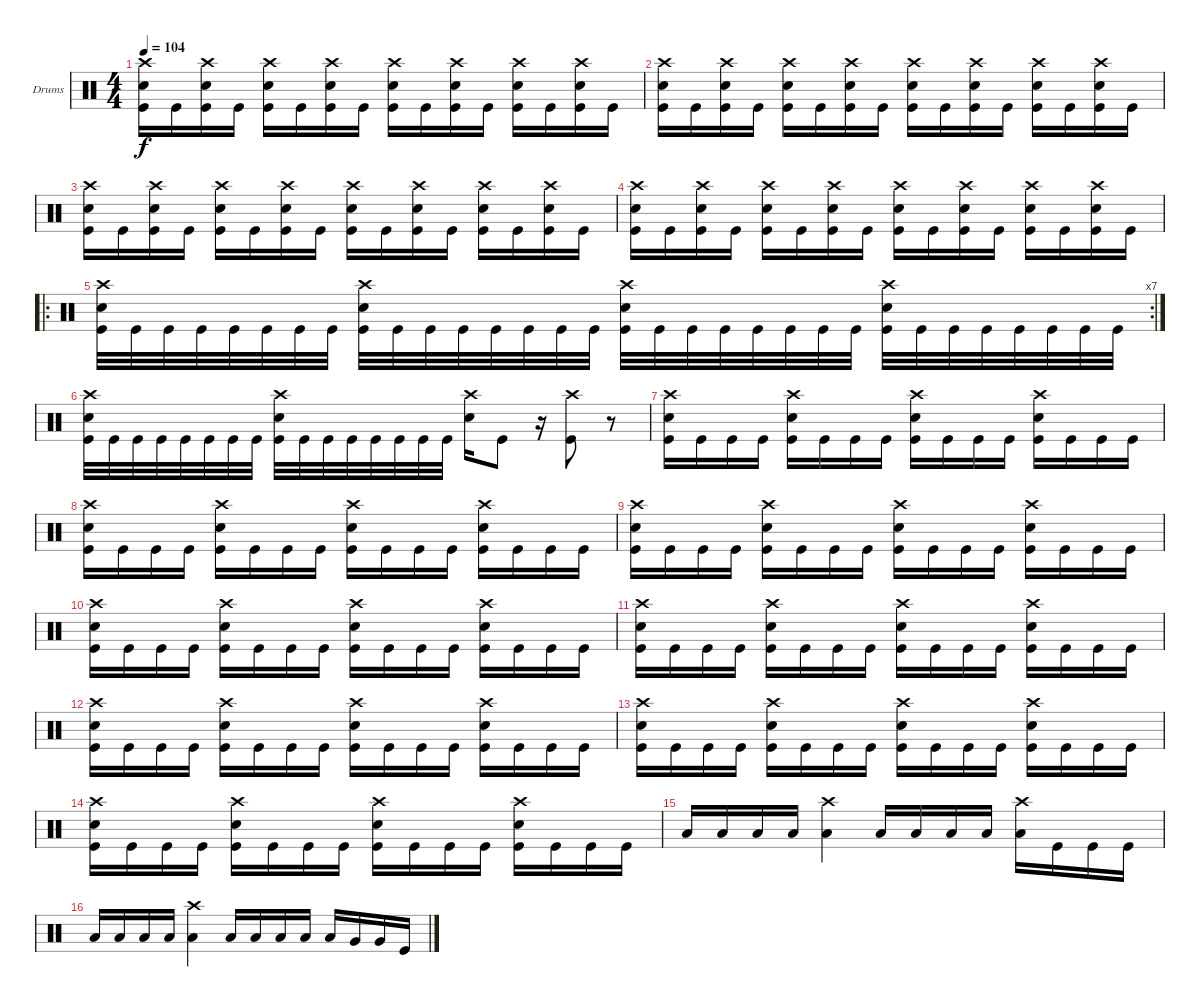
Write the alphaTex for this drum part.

\bracketExtendMode groupsimilarinstruments
\firstSystemTrackNameOrientation horizontal
\otherSystemsTrackNameOrientation horizontal
\track ("Drumkit" "Drums") {instrument percussion}
\staff {score}
\articulation defaults
\ts (4 4)
\tempo 104
\clef neutral
\ks c
("Crash high (hit)" "Snare (hit) 2" "Kick (hit)").16{dy f} "Kick (hit)".16 ("Crash high (hit)" "Snare (hit) 2" "Kick (hit)").16 "Kick (hit)".16 ("Crash high (hit)" "Snare (hit) 2" "Kick (hit)").16 "Kick (hit)".16 ("Crash high (hit)" "Snare (hit) 2" "Kick (hit)").16 "Kick (hit)".16 ("Crash high (hit)" "Snare (hit) 2" "Kick (hit)").16 "Kick (hit)".16 ("Crash high (hit)" "Snare (hit) 2" "Kick (hit)").16 "Kick (hit)".16 ("Crash high (hit)" "Snare (hit) 2" "Kick (hit)").16 "Kick (hit)".16 ("Crash high (hit)" "Snare (hit) 2" "Kick (hit)").16 "Kick (hit)".16 |
("Crash high (hit)" "Snare (hit) 2" "Kick (hit)").16 "Kick (hit)".16 ("Crash high (hit)" "Snare (hit) 2" "Kick (hit)").16 "Kick (hit)".16 ("Crash high (hit)" "Snare (hit) 2" "Kick (hit)").16 "Kick (hit)".16 ("Crash high (hit)" "Snare (hit) 2" "Kick (hit)").16 "Kick (hit)".16 ("Crash high (hit)" "Snare (hit) 2" "Kick (hit)").16 "Kick (hit)".16 ("Crash high (hit)" "Snare (hit) 2" "Kick (hit)").16 "Kick (hit)".16 ("Crash high (hit)" "Snare (hit) 2" "Kick (hit)").16 "Kick (hit)".16 ("Crash high (hit)" "Snare (hit) 2" "Kick (hit)").16 "Kick (hit)".16 |
("Crash high (hit)" "Snare (hit) 2" "Kick (hit)").16 "Kick (hit)".16 ("Crash high (hit)" "Snare (hit) 2" "Kick (hit)").16 "Kick (hit)".16 ("Crash high (hit)" "Snare (hit) 2" "Kick (hit)").16 "Kick (hit)".16 ("Crash high (hit)" "Snare (hit) 2" "Kick (hit)").16 "Kick (hit)".16 ("Crash high (hit)" "Snare (hit) 2" "Kick (hit)").16 "Kick (hit)".16 ("Crash high (hit)" "Snare (hit) 2" "Kick (hit)").16 "Kick (hit)".16 ("Crash high (hit)" "Snare (hit) 2" "Kick (hit)").16 "Kick (hit)".16 ("Crash high (hit)" "Snare (hit) 2" "Kick (hit)").16 "Kick (hit)".16 |
("Crash high (hit)" "Snare (hit) 2" "Kick (hit)").16 "Kick (hit)".16 ("Crash high (hit)" "Snare (hit) 2" "Kick (hit)").16 "Kick (hit)".16 ("Crash high (hit)" "Snare (hit) 2" "Kick (hit)").16 "Kick (hit)".16 ("Crash high (hit)" "Snare (hit) 2" "Kick (hit)").16 "Kick (hit)".16 ("Crash high (hit)" "Snare (hit) 2" "Kick (hit)").16 "Kick (hit)".16 ("Crash high (hit)" "Snare (hit) 2" "Kick (hit)").16 "Kick (hit)".16 ("Crash high (hit)" "Snare (hit) 2" "Kick (hit)").16 "Kick (hit)".16 ("Crash high (hit)" "Snare (hit) 2" "Kick (hit)").16 "Kick (hit)".16 |
\ro
\rc 7
("Crash high (hit)" "Snare (hit) 2" "Kick (hit)").32 "Kick (hit)".32 "Kick (hit)".32 "Kick (hit)".32 "Kick (hit)".32 "Kick (hit)".32 "Kick (hit)".32 "Kick (hit)".32 ("Crash high (hit)" "Snare (hit) 2" "Kick (hit)").32 "Kick (hit)".32 "Kick (hit)".32 "Kick (hit)".32 "Kick (hit)".32 "Kick (hit)".32 "Kick (hit)".32 "Kick (hit)".32 ("Crash high (hit)" "Snare (hit) 2" "Kick (hit)").32 "Kick (hit)".32 "Kick (hit)".32 "Kick (hit)".32 "Kick (hit)".32 "Kick (hit)".32 "Kick (hit)".32 "Kick (hit)".32 ("Crash high (hit)" "Snare (hit) 2" "Kick (hit)").32 "Kick (hit)".32 "Kick (hit)".32 "Kick (hit)".32 "Kick (hit)".32 "Kick (hit)".32 "Kick (hit)".32 "Kick (hit)".32 |
("Crash high (hit)" "Snare (hit) 2" "Kick (hit)").32 "Kick (hit)".32 "Kick (hit)".32 "Kick (hit)".32 "Kick (hit)".32 "Kick (hit)".32 "Kick (hit)".32 "Kick (hit)".32 ("Crash high (hit)" "Snare (hit) 2" "Kick (hit)").32 "Kick (hit)".32 "Kick (hit)".32 "Kick (hit)".32 "Kick (hit)".32 "Kick (hit)".32 "Kick (hit)".32 "Kick (hit)".32 ("Crash high (hit)" "Snare (hit) 2").16 "Kick (hit)".8 r.16 ("Crash high (hit)" "Kick (hit)").8 r.8 |
("Crash high (hit)" "Snare (hit) 2" "Kick (hit)").16 "Kick (hit)".16 "Kick (hit)".16 "Kick (hit)".16 ("Crash high (hit)" "Snare (hit) 2" "Kick (hit)").16 "Kick (hit)".16 "Kick (hit)".16 "Kick (hit)".16 ("Crash high (hit)" "Snare (hit) 2" "Kick (hit)").16 "Kick (hit)".16 "Kick (hit)".16 "Kick (hit)".16 ("Crash high (hit)" "Snare (hit) 2" "Kick (hit)").16 "Kick (hit)".16 "Kick (hit)".16 "Kick (hit)".16 |
("Crash high (hit)" "Snare (hit) 2" "Kick (hit)").16 "Kick (hit)".16 "Kick (hit)".16 "Kick (hit)".16 ("Crash high (hit)" "Snare (hit) 2" "Kick (hit)").16 "Kick (hit)".16 "Kick (hit)".16 "Kick (hit)".16 ("Crash high (hit)" "Snare (hit) 2" "Kick (hit)").16 "Kick (hit)".16 "Kick (hit)".16 "Kick (hit)".16 ("Crash high (hit)" "Snare (hit) 2" "Kick (hit)").16 "Kick (hit)".16 "Kick (hit)".16 "Kick (hit)".16 |
("Crash high (hit)" "Snare (hit) 2" "Kick (hit)").16 "Kick (hit)".16 "Kick (hit)".16 "Kick (hit)".16 ("Crash high (hit)" "Snare (hit) 2" "Kick (hit)").16 "Kick (hit)".16 "Kick (hit)".16 "Kick (hit)".16 ("Crash high (hit)" "Snare (hit) 2" "Kick (hit)").16 "Kick (hit)".16 "Kick (hit)".16 "Kick (hit)".16 ("Crash high (hit)" "Snare (hit) 2" "Kick (hit)").16 "Kick (hit)".16 "Kick (hit)".16 "Kick (hit)".16 |
("Crash high (hit)" "Snare (hit) 2" "Kick (hit)").16 "Kick (hit)".16 "Kick (hit)".16 "Kick (hit)".16 ("Crash high (hit)" "Snare (hit) 2" "Kick (hit)").16 "Kick (hit)".16 "Kick (hit)".16 "Kick (hit)".16 ("Crash high (hit)" "Snare (hit) 2" "Kick (hit)").16 "Kick (hit)".16 "Kick (hit)".16 "Kick (hit)".16 ("Crash high (hit)" "Snare (hit) 2" "Kick (hit)").16 "Kick (hit)".16 "Kick (hit)".16 "Kick (hit)".16 |
("Crash high (hit)" "Snare (hit) 2" "Kick (hit)").16 "Kick (hit)".16 "Kick (hit)".16 "Kick (hit)".16 ("Crash high (hit)" "Snare (hit) 2" "Kick (hit)").16 "Kick (hit)".16 "Kick (hit)".16 "Kick (hit)".16 ("Crash high (hit)" "Snare (hit) 2" "Kick (hit)").16 "Kick (hit)".16 "Kick (hit)".16 "Kick (hit)".16 ("Crash high (hit)" "Snare (hit) 2" "Kick (hit)").16 "Kick (hit)".16 "Kick (hit)".16 "Kick (hit)".16 |
("Crash high (hit)" "Snare (hit) 2" "Kick (hit)").16 "Kick (hit)".16 "Kick (hit)".16 "Kick (hit)".16 ("Crash high (hit)" "Snare (hit) 2" "Kick (hit)").16 "Kick (hit)".16 "Kick (hit)".16 "Kick (hit)".16 ("Crash high (hit)" "Snare (hit) 2" "Kick (hit)").16 "Kick (hit)".16 "Kick (hit)".16 "Kick (hit)".16 ("Crash high (hit)" "Snare (hit) 2" "Kick (hit)").16 "Kick (hit)".16 "Kick (hit)".16 "Kick (hit)".16 |
("Crash high (hit)" "Snare (hit) 2" "Kick (hit)").16 "Kick (hit)".16 "Kick (hit)".16 "Kick (hit)".16 ("Crash high (hit)" "Snare (hit) 2" "Kick (hit)").16 "Kick (hit)".16 "Kick (hit)".16 "Kick (hit)".16 ("Crash high (hit)" "Snare (hit) 2" "Kick (hit)").16 "Kick (hit)".16 "Kick (hit)".16 "Kick (hit)".16 ("Crash high (hit)" "Snare (hit) 2" "Kick (hit)").16 "Kick (hit)".16 "Kick (hit)".16 "Kick (hit)".16 |
("Crash high (hit)" "Snare (hit) 2" "Kick (hit)").16 "Kick (hit)".16 "Kick (hit)".16 "Kick (hit)".16 ("Crash high (hit)" "Snare (hit) 2" "Kick (hit)").16 "Kick (hit)".16 "Kick (hit)".16 "Kick (hit)".16 ("Crash high (hit)" "Snare (hit) 2" "Kick (hit)").16 "Kick (hit)".16 "Kick (hit)".16 "Kick (hit)".16 ("Crash high (hit)" "Snare (hit) 2" "Kick (hit)").16 "Kick (hit)".16 "Kick (hit)".16 "Kick (hit)".16 |
"Low Tom (hit)".16 "Low Tom (hit)".16 "Low Tom (hit)".16 "Low Tom (hit)".16 ("Crash high (hit)" "Low Tom (hit)").4 "Low Tom (hit)".16 "Low Tom (hit)".16 "Low Tom (hit)".16 "Low Tom (hit)".16 ("Crash high (hit)" "Low Tom (hit)").16 "Kick (hit)".16 "Kick (hit)".16 "Kick (hit)".16 |
"Low Tom (hit)".16 "Low Tom (hit)".16 "Low Tom (hit)".16 "Low Tom (hit)".16 ("Crash high (hit)" "Low Tom (hit)").4 "Low Tom (hit)".16 "Low Tom (hit)".16 "Low Tom (hit)".16 "Low Tom (hit)".16 "Low Tom (hit)".16 "Very Low Tom (hit)".16 "Very Low Tom (hit)".16 "Kick (hit)".16
